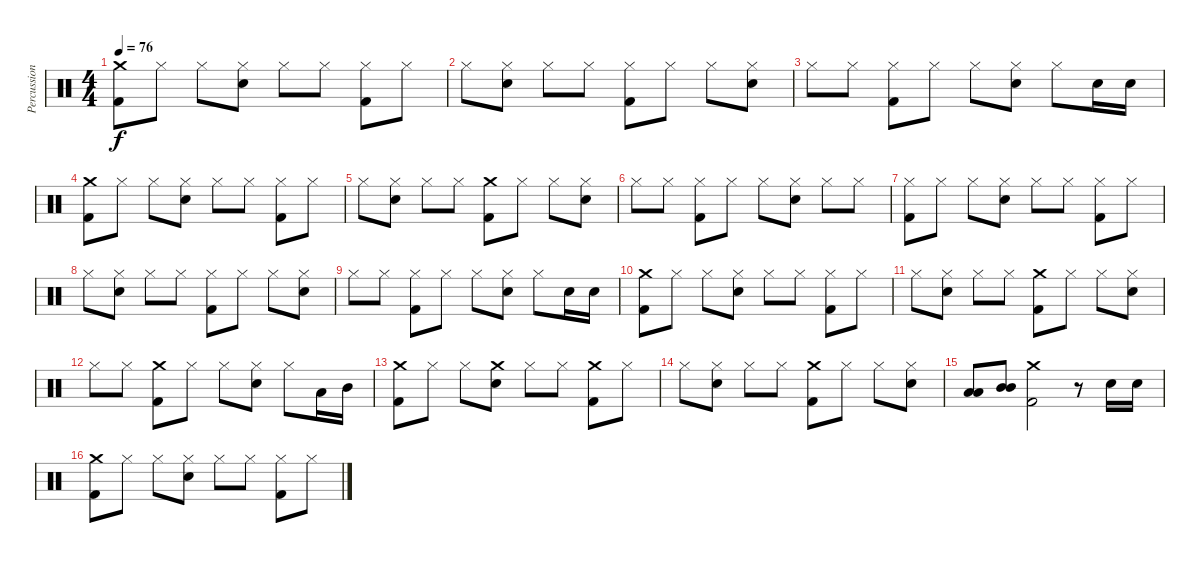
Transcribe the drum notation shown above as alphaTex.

\track ("Percussions" "Percussion") {instrument percussion}
\staff {score}
\articulation defaults
\ts (4 4)
\tempo 76
\clef neutral
\ks c
("Crash medium (hit)" "Kick (hit) 2").8{dy f} "Hi-Hat (closed)".8 "Hi-Hat (closed)".8 ("Hi-Hat (closed)" "Electric Snare (hit)").8 "Hi-Hat (closed)".8 "Hi-Hat (closed)".8 ("Hi-Hat (closed)" "Kick (hit) 2").8 "Hi-Hat (closed)".8 |
"Hi-Hat (closed)".8 ("Hi-Hat (closed)" "Electric Snare (hit)").8 "Hi-Hat (closed)".8 "Hi-Hat (closed)".8 ("Hi-Hat (closed)" "Kick (hit) 2").8 "Hi-Hat (closed)".8 "Hi-Hat (closed)".8 ("Hi-Hat (closed)" "Electric Snare (hit)").8 |
"Hi-Hat (closed)".8 "Hi-Hat (closed)".8 ("Hi-Hat (closed)" "Kick (hit) 2").8 "Hi-Hat (closed)".8 "Hi-Hat (closed)".8 ("Hi-Hat (closed)" "Electric Snare (hit)").8 "Hi-Hat (closed)".8 "Electric Snare (hit)".16 "Electric Snare (hit)".16 |
("Crash medium (hit)" "Kick (hit) 2").8 "Hi-Hat (closed)".8 "Hi-Hat (closed)".8 ("Hi-Hat (closed)" "Electric Snare (hit)").8 "Hi-Hat (closed)".8 "Hi-Hat (closed)".8 ("Hi-Hat (closed)" "Kick (hit) 2").8 "Hi-Hat (closed)".8 |
"Hi-Hat (closed)".8 ("Hi-Hat (closed)" "Electric Snare (hit)").8 "Hi-Hat (closed)".8 "Hi-Hat (closed)".8 ("Crash medium (hit)" "Kick (hit) 2").8 "Hi-Hat (closed)".8 "Hi-Hat (closed)".8 ("Hi-Hat (closed)" "Electric Snare (hit)").8 |
"Hi-Hat (closed)".8 "Hi-Hat (closed)".8 ("Hi-Hat (closed)" "Kick (hit) 2").8 "Hi-Hat (closed)".8 "Hi-Hat (closed)".8 ("Hi-Hat (closed)" "Electric Snare (hit)").8 "Hi-Hat (closed)".8 "Hi-Hat (closed)".8 |
("Hi-Hat (closed)" "Kick (hit) 2").8 "Hi-Hat (closed)".8 "Hi-Hat (closed)".8 ("Hi-Hat (closed)" "Electric Snare (hit)").8 "Hi-Hat (closed)".8 "Hi-Hat (closed)".8 ("Hi-Hat (closed)" "Kick (hit) 2").8 "Hi-Hat (closed)".8 |
"Hi-Hat (closed)".8 ("Hi-Hat (closed)" "Electric Snare (hit)").8 "Hi-Hat (closed)".8 "Hi-Hat (closed)".8 ("Hi-Hat (closed)" "Kick (hit) 2").8 "Hi-Hat (closed)".8 "Hi-Hat (closed)".8 ("Hi-Hat (closed)" "Electric Snare (hit)").8 |
"Hi-Hat (closed)".8 "Hi-Hat (closed)".8 ("Hi-Hat (closed)" "Kick (hit) 2").8 "Hi-Hat (closed)".8 "Hi-Hat (closed)".8 ("Hi-Hat (closed)" "Electric Snare (hit)").8 "Hi-Hat (closed)".8 "Electric Snare (hit)".16 "Electric Snare (hit)".16 |
("Crash medium (hit)" "Kick (hit) 2").8 "Hi-Hat (closed)".8 "Hi-Hat (closed)".8 ("Hi-Hat (closed)" "Electric Snare (hit)").8 "Hi-Hat (closed)".8 "Hi-Hat (closed)".8 ("Hi-Hat (closed)" "Kick (hit) 2").8 "Hi-Hat (closed)".8 |
"Hi-Hat (closed)".8 ("Hi-Hat (closed)" "Electric Snare (hit)").8 "Hi-Hat (closed)".8 "Hi-Hat (closed)".8 ("Crash medium (hit)" "Kick (hit) 2").8 "Hi-Hat (closed)".8 "Hi-Hat (closed)".8 ("Hi-Hat (closed)" "Electric Snare (hit)").8 |
"Hi-Hat (closed)".8 "Hi-Hat (closed)".8 ("Crash medium (hit)" "Kick (hit) 2").8 "Hi-Hat (closed)".8 "Hi-Hat (closed)".8 ("Hi-Hat (closed)" "Electric Snare (hit)").8 "Hi-Hat (closed)".8 "Low Tom (hit)".16 "Mid Tom (hit)".16 |
("Crash medium (hit)" "Kick (hit) 2").8 "Hi-Hat (closed)".8 "Hi-Hat (closed)".8 ("Crash medium (hit)" "Electric Snare (hit)").8 "Hi-Hat (closed)".8 "Hi-Hat (closed)".8 ("Crash medium (hit)" "Kick (hit) 2").8 "Hi-Hat (closed)".8 |
"Hi-Hat (closed)".8 ("Hi-Hat (closed)" "Electric Snare (hit)").8 "Hi-Hat (closed)".8 "Hi-Hat (closed)".8 ("Crash medium (hit)" "Kick (hit) 2").8 "Hi-Hat (closed)".8 "Hi-Hat (closed)".8 ("Hi-Hat (closed)" "Electric Snare (hit)").8 |
("Low Tom (hit)" "Low Tom (hit)").8 ("Mid Tom (hit)" "Mid Tom (hit)").8 ("Crash medium (hit)" "Kick (hit) 2").2 r.8 "Electric Snare (hit)".16 "Electric Snare (hit)".16 |
("Crash medium (hit)" "Kick (hit) 2").8 "Hi-Hat (closed)".8 "Hi-Hat (closed)".8 ("Hi-Hat (closed)" "Electric Snare (hit)").8 "Hi-Hat (closed)".8 "Hi-Hat (closed)".8 ("Hi-Hat (closed)" "Kick (hit) 2").8 "Hi-Hat (closed)".8
